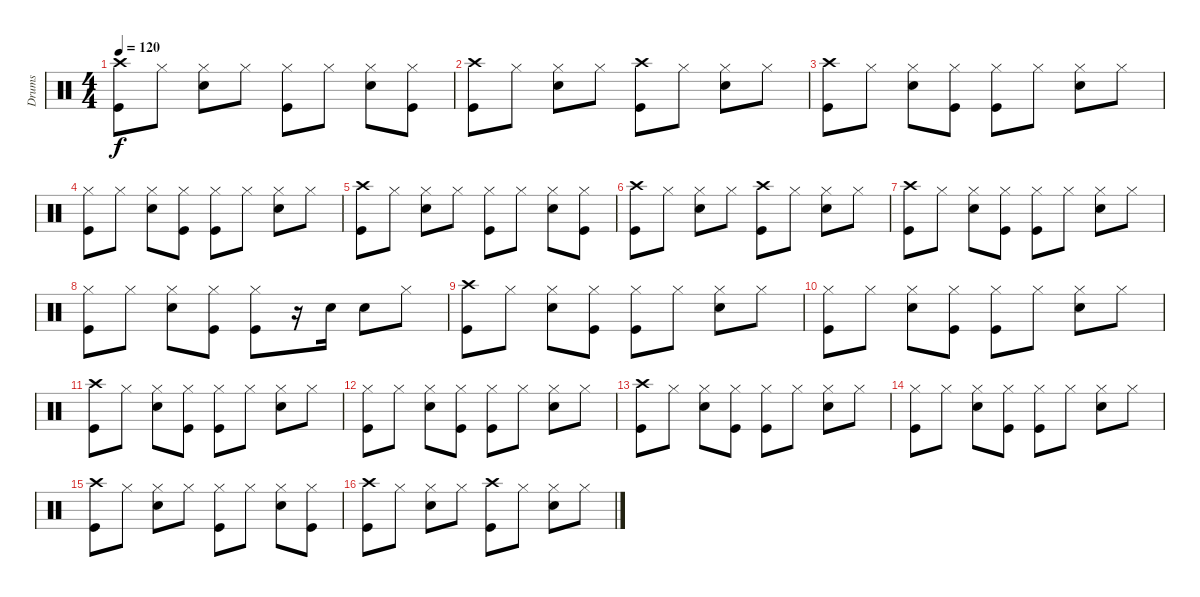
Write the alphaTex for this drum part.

\track ("Drums" "Drums") {instrument percussion}
\staff {score}
\articulation defaults
\ts (4 4)
\tempo 120
\clef neutral
\ks c
("Crash high (hit)" "Kick (hit)").8{dy f} "Hi-Hat (closed)".8 ("Hi-Hat (closed)" "Snare (hit) 2").8 "Hi-Hat (closed)".8 ("Hi-Hat (closed)" "Kick (hit)").8 "Hi-Hat (closed)".8 ("Hi-Hat (closed)" "Snare (hit) 2").8 ("Hi-Hat (closed)" "Kick (hit)").8 |
("Crash high (hit)" "Kick (hit)").8 "Hi-Hat (closed)".8 ("Hi-Hat (closed)" "Snare (hit) 2").8 "Hi-Hat (closed)".8 ("Crash high (hit)" "Kick (hit)").8 "Hi-Hat (closed)".8 ("Hi-Hat (closed)" "Snare (hit) 2").8 "Hi-Hat (closed)".8 |
("Crash high (hit)" "Kick (hit)").8 "Hi-Hat (closed)".8 ("Hi-Hat (closed)" "Snare (hit) 2").8 ("Hi-Hat (closed)" "Kick (hit)").8 ("Hi-Hat (closed)" "Kick (hit)").8 "Hi-Hat (closed)".8 ("Hi-Hat (closed)" "Snare (hit) 2").8 "Hi-Hat (closed)".8 |
("Hi-Hat (closed)" "Kick (hit)").8 "Hi-Hat (closed)".8 ("Hi-Hat (closed)" "Snare (hit) 2").8 ("Hi-Hat (closed)" "Kick (hit)").8 ("Hi-Hat (closed)" "Kick (hit)").8 "Hi-Hat (closed)".8 ("Hi-Hat (closed)" "Snare (hit) 2").8 "Hi-Hat (closed)".8 |
("Crash high (hit)" "Kick (hit)").8 "Hi-Hat (closed)".8 ("Hi-Hat (closed)" "Snare (hit) 2").8 "Hi-Hat (closed)".8 ("Hi-Hat (closed)" "Kick (hit)").8 "Hi-Hat (closed)".8 ("Hi-Hat (closed)" "Snare (hit) 2").8 ("Hi-Hat (closed)" "Kick (hit)").8 |
("Crash high (hit)" "Kick (hit)").8 "Hi-Hat (closed)".8 ("Hi-Hat (closed)" "Snare (hit) 2").8 "Hi-Hat (closed)".8 ("Crash high (hit)" "Kick (hit)").8 "Hi-Hat (closed)".8 ("Hi-Hat (closed)" "Snare (hit) 2").8 "Hi-Hat (closed)".8 |
("Crash high (hit)" "Kick (hit)").8 "Hi-Hat (closed)".8 ("Hi-Hat (closed)" "Snare (hit) 2").8 ("Hi-Hat (closed)" "Kick (hit)").8 ("Hi-Hat (closed)" "Kick (hit)").8 "Hi-Hat (closed)".8 ("Hi-Hat (closed)" "Snare (hit) 2").8 "Hi-Hat (closed)".8 |
("Hi-Hat (closed)" "Kick (hit)").8 "Hi-Hat (closed)".8 ("Hi-Hat (closed)" "Snare (hit) 2").8 ("Hi-Hat (closed)" "Kick (hit)").8 ("Hi-Hat (closed)" "Kick (hit)").8 r.16 "Snare (hit) 2".16 "Snare (hit) 2".8 "Hi-Hat (closed)".8 |
("Crash high (hit)" "Kick (hit)").8 "Hi-Hat (closed)".8 ("Hi-Hat (closed)" "Snare (hit) 2").8 ("Hi-Hat (closed)" "Kick (hit)").8 ("Hi-Hat (closed)" "Kick (hit)").8 "Hi-Hat (closed)".8 ("Hi-Hat (closed)" "Snare (hit) 2").8 "Hi-Hat (closed)".8 |
("Hi-Hat (closed)" "Kick (hit)").8 "Hi-Hat (closed)".8 ("Hi-Hat (closed)" "Snare (hit) 2").8 ("Hi-Hat (closed)" "Kick (hit)").8 ("Hi-Hat (closed)" "Kick (hit)").8 "Hi-Hat (closed)".8 ("Hi-Hat (closed)" "Snare (hit) 2").8 "Hi-Hat (closed)".8 |
("Crash high (hit)" "Kick (hit)").8 "Hi-Hat (closed)".8 ("Hi-Hat (closed)" "Snare (hit) 2").8 ("Hi-Hat (closed)" "Kick (hit)").8 ("Hi-Hat (closed)" "Kick (hit)").8 "Hi-Hat (closed)".8 ("Hi-Hat (closed)" "Snare (hit) 2").8 "Hi-Hat (closed)".8 |
("Hi-Hat (closed)" "Kick (hit)").8 "Hi-Hat (closed)".8 ("Hi-Hat (closed)" "Snare (hit) 2").8 ("Hi-Hat (closed)" "Kick (hit)").8 ("Hi-Hat (closed)" "Kick (hit)").8 "Hi-Hat (closed)".8 ("Hi-Hat (closed)" "Snare (hit) 2").8 "Hi-Hat (closed)".8 |
("Crash high (hit)" "Kick (hit)").8 "Hi-Hat (closed)".8 ("Hi-Hat (closed)" "Snare (hit) 2").8 ("Hi-Hat (closed)" "Kick (hit)").8 ("Hi-Hat (closed)" "Kick (hit)").8 "Hi-Hat (closed)".8 ("Hi-Hat (closed)" "Snare (hit) 2").8 "Hi-Hat (closed)".8 |
("Hi-Hat (closed)" "Kick (hit)").8 "Hi-Hat (closed)".8 ("Hi-Hat (closed)" "Snare (hit) 2").8 ("Hi-Hat (closed)" "Kick (hit)").8 ("Hi-Hat (closed)" "Kick (hit)").8 "Hi-Hat (closed)".8 ("Hi-Hat (closed)" "Snare (hit) 2").8 "Hi-Hat (closed)".8 |
("Crash high (hit)" "Kick (hit)").8 "Hi-Hat (closed)".8 ("Hi-Hat (closed)" "Snare (hit) 2").8 "Hi-Hat (closed)".8 ("Hi-Hat (closed)" "Kick (hit)").8 "Hi-Hat (closed)".8 ("Hi-Hat (closed)" "Snare (hit) 2").8 ("Hi-Hat (closed)" "Kick (hit)").8 |
("Crash high (hit)" "Kick (hit)").8 "Hi-Hat (closed)".8 ("Hi-Hat (closed)" "Snare (hit) 2").8 "Hi-Hat (closed)".8 ("Crash high (hit)" "Kick (hit)").8 "Hi-Hat (closed)".8 ("Hi-Hat (closed)" "Snare (hit) 2").8 "Hi-Hat (closed)".8
